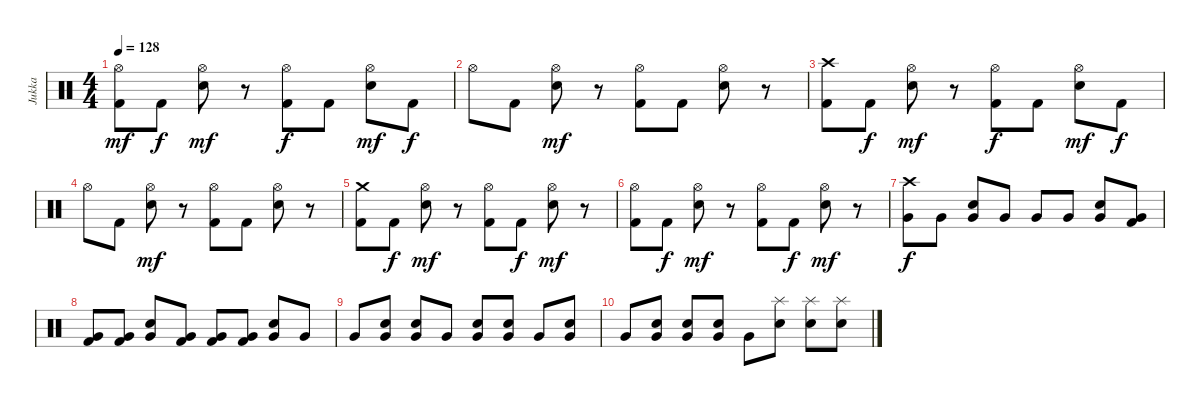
\track ("Jukka" "Jukka") {instrument percussion}
\staff {score}
\articulation defaults
\ts (4 4)
\tempo 128
\clef neutral
\ks c
("Kick (hit) 2" "Hi-Hat (open)").8{dy mf} "Kick (hit) 2".8{dy f} ("Electric Snare (hit)" "Hi-Hat (open)").8{dy mf} r.8 ("Kick (hit) 2" "Hi-Hat (open)").8{dy f} "Kick (hit) 2".8 ("Electric Snare (hit)" "Hi-Hat (open)").8{dy mf} "Kick (hit) 2".8{dy f} |
"Hi-Hat (open)".8 "Kick (hit) 2".8 ("Electric Snare (hit)" "Hi-Hat (open)").8{dy mf} r.8 ("Kick (hit) 2" "Hi-Hat (open)").8 "Kick (hit) 2".8 ("Electric Snare (hit)" "Hi-Hat (open)").8 r.8 |
("Kick (hit) 2" "Crash high (hit)").8 "Kick (hit) 2".8{dy f} ("Electric Snare (hit)" "Hi-Hat (open)").8{dy mf} r.8 ("Kick (hit) 2" "Hi-Hat (open)").8{dy f} "Kick (hit) 2".8 ("Electric Snare (hit)" "Hi-Hat (open)").8{dy mf} "Kick (hit) 2".8{dy f} |
"Hi-Hat (open)".8 "Kick (hit) 2".8 ("Electric Snare (hit)" "Hi-Hat (open)").8{dy mf} r.8 ("Kick (hit) 2" "Hi-Hat (open)").8 "Kick (hit) 2".8 ("Electric Snare (hit)" "Hi-Hat (open)").8 r.8 |
("Kick (hit) 2" "Crash medium (hit)").8 "Kick (hit) 2".8{dy f} ("Electric Snare (hit)" "Hi-Hat (open)").8{dy mf} r.8 ("Kick (hit) 2" "Hi-Hat (open)").8 "Kick (hit) 2".8{dy f} ("Electric Snare (hit)" "Hi-Hat (open)").8{dy mf} r.8 |
("Kick (hit) 2" "Hi-Hat (open)").8 "Kick (hit) 2".8{dy f} ("Electric Snare (hit)" "Hi-Hat (open)").8{dy mf} r.8 ("Kick (hit) 2" "Hi-Hat (open)").8 "Kick (hit) 2".8{dy f} ("Electric Snare (hit)" "Hi-Hat (open)").8{dy mf} r.8 |
("Crash high (hit)" "Very Low Tom (hit)").8{dy f} "Very Low Tom (hit)".8 ("Electric Snare (hit)" "Very Low Tom (hit)").8 "Very Low Tom (hit)".8 "Very Low Tom (hit)".8 "Very Low Tom (hit)".8 ("Electric Snare (hit)" "Very Low Tom (hit)").8 ("Very Low Tom (hit)" "Kick (hit) 2").8 |
("Very Low Tom (hit)" "Kick (hit) 2").8 ("Very Low Tom (hit)" "Kick (hit) 2").8 ("Electric Snare (hit)" "Very Low Tom (hit)").8 ("Very Low Tom (hit)" "Kick (hit) 2").8 ("Very Low Tom (hit)" "Kick (hit) 2").8 ("Very Low Tom (hit)" "Kick (hit) 2").8 ("Electric Snare (hit)" "Very Low Tom (hit)").8 "Very Low Tom (hit)".8 |
"Very Low Tom (hit)".8 ("Electric Snare (hit)" "Very Low Tom (hit)").8 ("Electric Snare (hit)" "Very Low Tom (hit)").8 "Very Low Tom (hit)".8 ("Electric Snare (hit)" "Very Low Tom (hit)").8 ("Electric Snare (hit)" "Very Low Tom (hit)").8 "Very Low Tom (hit)".8 ("Electric Snare (hit)" "Very Low Tom (hit)").8 |
"Very Low Tom (hit)".8 ("Electric Snare (hit)" "Very Low Tom (hit)").8 ("Electric Snare (hit)" "Very Low Tom (hit)").8 ("Electric Snare (hit)" "Very Low Tom (hit)").8 "Very Low Tom (hit)".8 ("Electric Snare (hit)" "Splash (hit)").8 ("Electric Snare (hit)" "Splash (hit)").8 ("Electric Snare (hit)" "Splash (hit)").8
